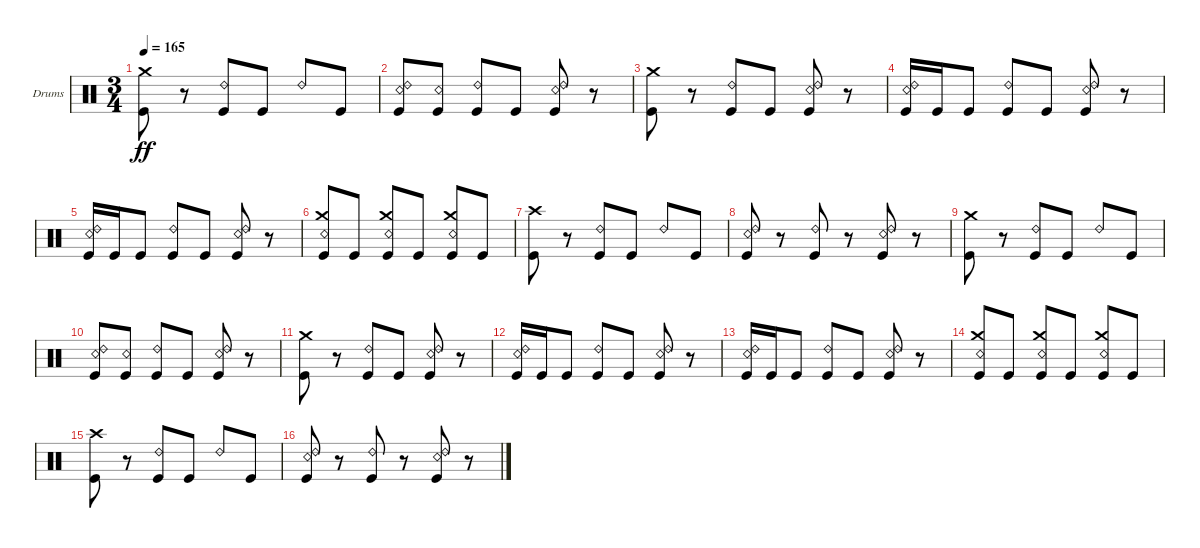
\bracketExtendMode groupsimilarinstruments
\firstSystemTrackNameOrientation horizontal
\otherSystemsTrackNameOrientation horizontal
\track ("Kaleb - Drums" "Drums") {instrument percussion}
\staff {score}
\articulation defaults
\ts (3 4)
\tempo 165
\clef neutral
\ks c
("Kick (hit)" "Crash medium (hit)").8{dy ff} r.8 ("Kick (hit)" "Ride (bell) 2").8 "Kick (hit)".8 "Ride (bell) 2".8 "Kick (hit)".8 |
("Kick (hit)" "Ride (bell) 2" "Snare (rim shot)").8 ("Kick (hit)" "Snare (rim shot)").8 ("Kick (hit)" "Ride (bell) 2").8 "Kick (hit)".8 ("Kick (hit)" "Ride (bell) 2" "Snare (rim shot)").8 r.8 |
("Kick (hit)" "Crash medium (hit)").8 r.8 ("Kick (hit)" "Ride (bell) 2").8 "Kick (hit)".8 ("Kick (hit)" "Snare (rim shot)" "Ride (bell) 2").8 r.8 |
("Kick (hit)" "Snare (rim shot)" "Ride (bell) 2").16 "Kick (hit)".16 "Kick (hit)".8 ("Kick (hit)" "Ride (bell) 2").8 "Kick (hit)".8 ("Kick (hit)" "Snare (rim shot)" "Ride (bell) 2").8 r.8 |
("Kick (hit)" "Snare (rim shot)" "Ride (bell) 2").16 "Kick (hit)".16 "Kick (hit)".8 ("Kick (hit)" "Ride (bell) 2").8 "Kick (hit)".8 ("Kick (hit)" "Snare (rim shot)" "Ride (bell) 2").8 r.8 |
("Kick (hit)" "Crash medium (hit)" "Snare (rim shot)").8 "Kick (hit)".8 ("Kick (hit)" "Crash medium (hit)" "Snare (rim shot)").8 "Kick (hit)".8 ("Kick (hit)" "Crash medium (hit)" "Snare (rim shot)").8 "Kick (hit)".8 |
("Kick (hit)" "Crash high (hit)").8 r.8 ("Kick (hit)" "Ride (bell) 2").8 "Kick (hit)".8 "Ride (bell) 2".8 "Kick (hit)".8 |
("Kick (hit)" "Ride (bell) 2" "Snare (rim shot)").8 r.8 ("Kick (hit)" "Ride (bell) 2").8 r.8 ("Kick (hit)" "Ride (bell) 2" "Snare (rim shot)").8 r.8 |
("Kick (hit)" "Crash medium (hit)").8 r.8 ("Kick (hit)" "Ride (bell) 2").8 "Kick (hit)".8 "Ride (bell) 2".8 "Kick (hit)".8 |
("Kick (hit)" "Ride (bell) 2" "Snare (rim shot)").8 ("Kick (hit)" "Snare (rim shot)").8 ("Kick (hit)" "Ride (bell) 2").8 "Kick (hit)".8 ("Kick (hit)" "Ride (bell) 2" "Snare (rim shot)").8 r.8 |
("Kick (hit)" "Crash medium (hit)").8 r.8 ("Kick (hit)" "Ride (bell) 2").8 "Kick (hit)".8 ("Kick (hit)" "Snare (rim shot)" "Ride (bell) 2").8 r.8 |
("Kick (hit)" "Snare (rim shot)" "Ride (bell) 2").16 "Kick (hit)".16 "Kick (hit)".8 ("Kick (hit)" "Ride (bell) 2").8 "Kick (hit)".8 ("Kick (hit)" "Snare (rim shot)" "Ride (bell) 2").8 r.8 |
("Kick (hit)" "Snare (rim shot)" "Ride (bell) 2").16 "Kick (hit)".16 "Kick (hit)".8 ("Kick (hit)" "Ride (bell) 2").8 "Kick (hit)".8 ("Kick (hit)" "Snare (rim shot)" "Ride (bell) 2").8 r.8 |
("Kick (hit)" "Crash medium (hit)" "Snare (rim shot)").8 "Kick (hit)".8 ("Kick (hit)" "Crash medium (hit)" "Snare (rim shot)").8 "Kick (hit)".8 ("Kick (hit)" "Crash medium (hit)" "Snare (rim shot)").8 "Kick (hit)".8 |
("Kick (hit)" "Crash high (hit)").8 r.8 ("Kick (hit)" "Ride (bell) 2").8 "Kick (hit)".8 "Ride (bell) 2".8 "Kick (hit)".8 |
("Kick (hit)" "Ride (bell) 2" "Snare (rim shot)").8 r.8 ("Kick (hit)" "Ride (bell) 2").8 r.8 ("Kick (hit)" "Ride (bell) 2" "Snare (rim shot)").8 r.8
